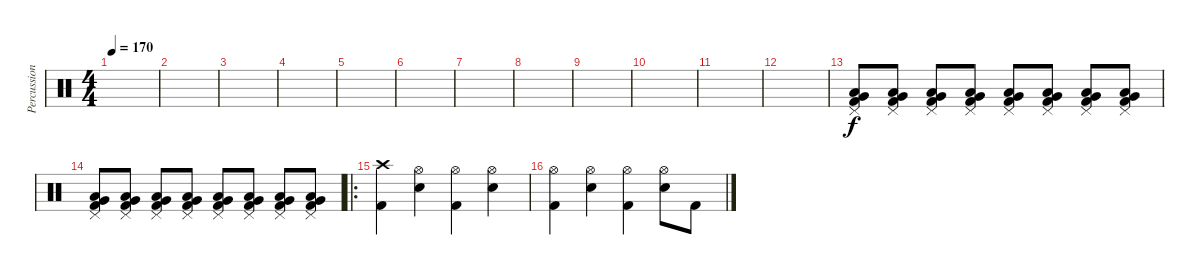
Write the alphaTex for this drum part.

\track ("Percussion" "Percussion") {instrument percussion}
\staff {score}
\articulation defaults
\ts (4 4)
\tempo 170
\clef neutral
\ks c
|
|
|
|
|
|
|
|
|
|
|
|
("Pedal Hi-Hat (hit)" "Low Tom (hit)" "Very Low Tom (hit)" "Kick (hit) 2").8 ("Pedal Hi-Hat (hit)" "Low Tom (hit)" "Very Low Tom (hit)" "Kick (hit) 2").8 ("Pedal Hi-Hat (hit)" "Low Tom (hit)" "Very Low Tom (hit)" "Kick (hit) 2").8 ("Pedal Hi-Hat (hit)" "Low Tom (hit)" "Very Low Tom (hit)" "Kick (hit) 2").8 ("Pedal Hi-Hat (hit)" "Low Tom (hit)" "Very Low Tom (hit)" "Kick (hit) 2").8 ("Pedal Hi-Hat (hit)" "Low Tom (hit)" "Very Low Tom (hit)" "Kick (hit) 2").8 ("Pedal Hi-Hat (hit)" "Low Tom (hit)" "Very Low Tom (hit)" "Kick (hit) 2").8 ("Pedal Hi-Hat (hit)" "Low Tom (hit)" "Very Low Tom (hit)" "Kick (hit) 2").8 |
("Pedal Hi-Hat (hit)" "Low Tom (hit)" "Very Low Tom (hit)" "Kick (hit) 2").8 ("Pedal Hi-Hat (hit)" "Low Tom (hit)" "Very Low Tom (hit)" "Kick (hit) 2").8 ("Pedal Hi-Hat (hit)" "Low Tom (hit)" "Very Low Tom (hit)" "Kick (hit) 2").8 ("Pedal Hi-Hat (hit)" "Low Tom (hit)" "Very Low Tom (hit)" "Kick (hit) 2").8 ("Pedal Hi-Hat (hit)" "Low Tom (hit)" "Very Low Tom (hit)" "Kick (hit) 2").8 ("Pedal Hi-Hat (hit)" "Low Tom (hit)" "Very Low Tom (hit)" "Kick (hit) 2").8 ("Pedal Hi-Hat (hit)" "Low Tom (hit)" "Very Low Tom (hit)" "Kick (hit) 2").8 ("Pedal Hi-Hat (hit)" "Low Tom (hit)" "Very Low Tom (hit)" "Kick (hit) 2").8 |
\ro
("Crash high (hit)" "Kick (hit) 2").4 ("Hi-Hat (open)" "Snare (hit) 2").4 ("Hi-Hat (open)" "Kick (hit) 2").4 ("Hi-Hat (open)" "Snare (hit) 2").4 |
("Hi-Hat (open)" "Kick (hit) 2").4 ("Hi-Hat (open)" "Snare (hit) 2").4 ("Hi-Hat (open)" "Kick (hit) 2").4 ("Hi-Hat (open)" "Snare (hit) 2").8 "Kick (hit) 2".8
